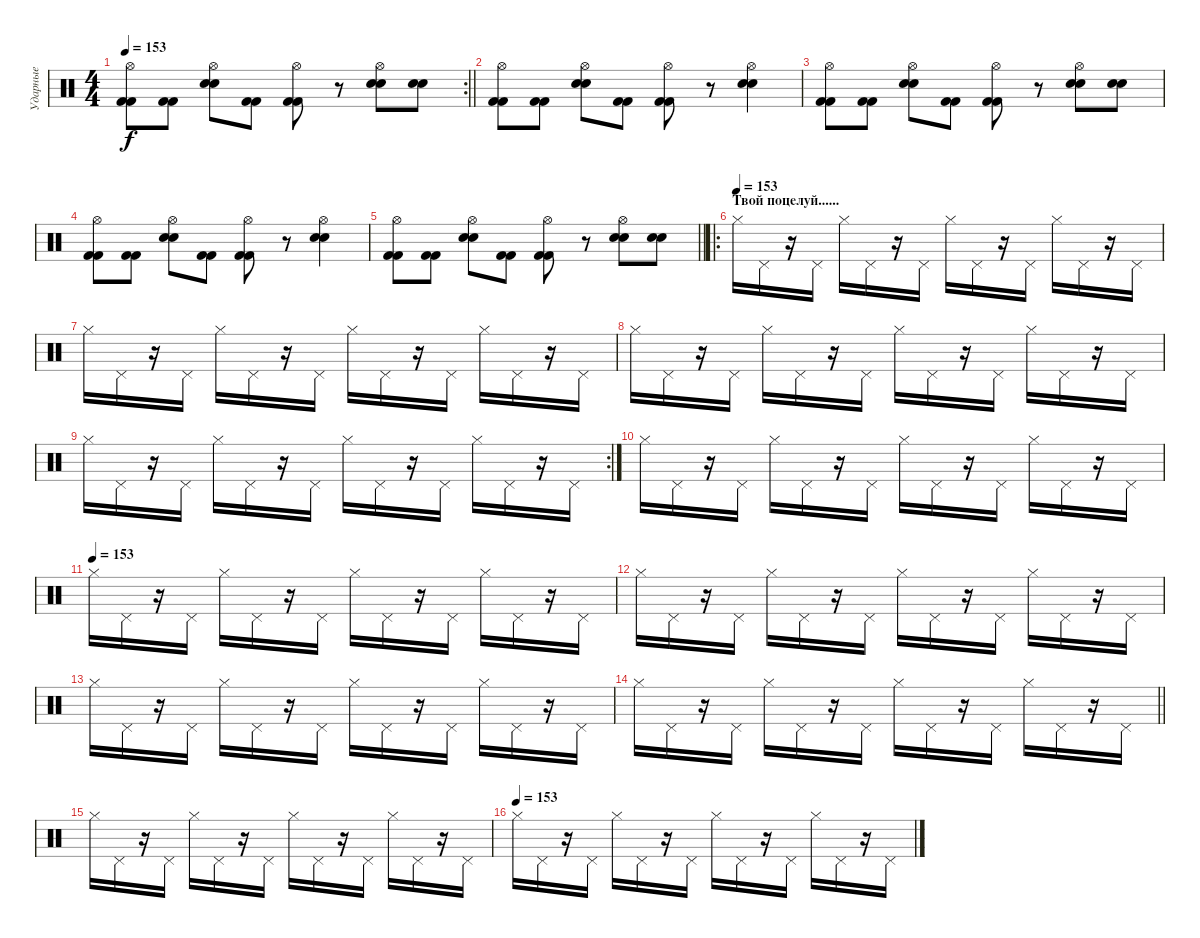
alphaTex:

\track ("Ударные" "Ударные") {instrument percussion}
\staff {score}
\articulation defaults
\rc 2
\ts (4 4)
\tempo 153
\clef neutral
\barLineRight lightlight
\ks c
("Kick (hit) 2" "Kick (hit) 2" "Hi-Hat (open)").8{dy f} ("Kick (hit) 2" "Kick (hit) 2").8 ("Electric Snare (hit)" "Electric Snare (hit)" "Hi-Hat (open)").8 ("Kick (hit) 2" "Kick (hit) 2").8 ("Kick (hit) 2" "Kick (hit) 2" "Hi-Hat (open)").8 r.8 ("Electric Snare (hit)" "Electric Snare (hit)" "Hi-Hat (open)").8 ("Electric Snare (hit)" "Electric Snare (hit)").8 |
("Kick (hit) 2" "Kick (hit) 2" "Hi-Hat (open)").8 ("Kick (hit) 2" "Kick (hit) 2").8 ("Electric Snare (hit)" "Electric Snare (hit)" "Hi-Hat (open)").8 ("Kick (hit) 2" "Kick (hit) 2").8 ("Kick (hit) 2" "Kick (hit) 2" "Hi-Hat (open)").8 r.8 ("Electric Snare (hit)" "Electric Snare (hit)" "Hi-Hat (open)").4 |
("Kick (hit) 2" "Kick (hit) 2" "Hi-Hat (open)").8 ("Kick (hit) 2" "Kick (hit) 2").8 ("Electric Snare (hit)" "Electric Snare (hit)" "Hi-Hat (open)").8 ("Kick (hit) 2" "Kick (hit) 2").8 ("Kick (hit) 2" "Kick (hit) 2" "Hi-Hat (open)").8 r.8 ("Electric Snare (hit)" "Electric Snare (hit)" "Hi-Hat (open)").8 ("Electric Snare (hit)" "Electric Snare (hit)").8 |
("Kick (hit) 2" "Kick (hit) 2" "Hi-Hat (open)").8 ("Kick (hit) 2" "Kick (hit) 2").8 ("Electric Snare (hit)" "Electric Snare (hit)" "Hi-Hat (open)").8 ("Kick (hit) 2" "Kick (hit) 2").8 ("Kick (hit) 2" "Kick (hit) 2" "Hi-Hat (open)").8 r.8 ("Electric Snare (hit)" "Electric Snare (hit)" "Hi-Hat (open)").4 |
\barLineRight lightlight
("Kick (hit) 2" "Kick (hit) 2" "Hi-Hat (open)").8 ("Kick (hit) 2" "Kick (hit) 2").8 ("Electric Snare (hit)" "Electric Snare (hit)" "Hi-Hat (open)").8 ("Kick (hit) 2" "Kick (hit) 2").8 ("Kick (hit) 2" "Kick (hit) 2" "Hi-Hat (open)").8 r.8 ("Electric Snare (hit)" "Electric Snare (hit)" "Hi-Hat (open)").8 ("Electric Snare (hit)" "Electric Snare (hit)").8 |
\ro
\section ("" "Твой поцелуй......")
\tempo (153)
"Hi-Hat (closed)".16{volume 13} "Pedal Hi-Hat (hit)".16 r.16 "Pedal Hi-Hat (hit)".16 "Hi-Hat (closed)".16 "Pedal Hi-Hat (hit)".16 r.16 "Pedal Hi-Hat (hit)".16 "Hi-Hat (closed)".16 "Pedal Hi-Hat (hit)".16 r.16 "Pedal Hi-Hat (hit)".16 "Hi-Hat (closed)".16 "Pedal Hi-Hat (hit)".16 r.16 "Pedal Hi-Hat (hit)".16 |
"Hi-Hat (closed)".16 "Pedal Hi-Hat (hit)".16 r.16 "Pedal Hi-Hat (hit)".16 "Hi-Hat (closed)".16 "Pedal Hi-Hat (hit)".16 r.16 "Pedal Hi-Hat (hit)".16 "Hi-Hat (closed)".16 "Pedal Hi-Hat (hit)".16 r.16 "Pedal Hi-Hat (hit)".16 "Hi-Hat (closed)".16 "Pedal Hi-Hat (hit)".16 r.16 "Pedal Hi-Hat (hit)".16 |
"Hi-Hat (closed)".16 "Pedal Hi-Hat (hit)".16 r.16 "Pedal Hi-Hat (hit)".16 "Hi-Hat (closed)".16 "Pedal Hi-Hat (hit)".16 r.16 "Pedal Hi-Hat (hit)".16 "Hi-Hat (closed)".16 "Pedal Hi-Hat (hit)".16 r.16 "Pedal Hi-Hat (hit)".16 "Hi-Hat (closed)".16 "Pedal Hi-Hat (hit)".16 r.16 "Pedal Hi-Hat (hit)".16 |
\rc 2 "Hi-Hat (closed)".16 "Pedal Hi-Hat (hit)".16
r.16 "Pedal Hi-Hat (hit)".16 "Hi-Hat (closed)".16 "Pedal Hi-Hat (hit)".16 r.16 "Pedal Hi-Hat (hit)".16 "Hi-Hat (closed)".16 "Pedal Hi-Hat (hit)".16 r.16 "Pedal Hi-Hat (hit)".16 "Hi-Hat (closed)".16 "Pedal Hi-Hat (hit)".16 r.16 "Pedal Hi-Hat (hit)".16 |
"Hi-Hat (closed)".16 "Pedal Hi-Hat (hit)".16 r.16 "Pedal Hi-Hat (hit)".16 "Hi-Hat (closed)".16 "Pedal Hi-Hat (hit)".16 r.16 "Pedal Hi-Hat (hit)".16 "Hi-Hat (closed)".16 "Pedal Hi-Hat (hit)".16 r.16 "Pedal Hi-Hat (hit)".16 "Hi-Hat (closed)".16 "Pedal Hi-Hat (hit)".16 r.16 "Pedal Hi-Hat (hit)".16 |
\tempo (153)
"Hi-Hat (closed)".16{volume 13} "Pedal Hi-Hat (hit)".16 r.16 "Pedal Hi-Hat (hit)".16 "Hi-Hat (closed)".16 "Pedal Hi-Hat (hit)".16 r.16 "Pedal Hi-Hat (hit)".16 "Hi-Hat (closed)".16 "Pedal Hi-Hat (hit)".16 r.16 "Pedal Hi-Hat (hit)".16 "Hi-Hat (closed)".16 "Pedal Hi-Hat (hit)".16 r.16 "Pedal Hi-Hat (hit)".16 |
"Hi-Hat (closed)".16 "Pedal Hi-Hat (hit)".16 r.16 "Pedal Hi-Hat (hit)".16 "Hi-Hat (closed)".16 "Pedal Hi-Hat (hit)".16 r.16 "Pedal Hi-Hat (hit)".16 "Hi-Hat (closed)".16 "Pedal Hi-Hat (hit)".16 r.16 "Pedal Hi-Hat (hit)".16 "Hi-Hat (closed)".16 "Pedal Hi-Hat (hit)".16 r.16 "Pedal Hi-Hat (hit)".16 |
"Hi-Hat (closed)".16 "Pedal Hi-Hat (hit)".16 r.16 "Pedal Hi-Hat (hit)".16 "Hi-Hat (closed)".16 "Pedal Hi-Hat (hit)".16 r.16 "Pedal Hi-Hat (hit)".16 "Hi-Hat (closed)".16 "Pedal Hi-Hat (hit)".16 r.16 "Pedal Hi-Hat (hit)".16 "Hi-Hat (closed)".16 "Pedal Hi-Hat (hit)".16 r.16 "Pedal Hi-Hat (hit)".16 |
\barLineRight lightlight "Hi-Hat (closed)".16 "Pedal Hi-Hat (hit)".16
r.16 "Pedal Hi-Hat (hit)".16 "Hi-Hat (closed)".16 "Pedal Hi-Hat (hit)".16 r.16 "Pedal Hi-Hat (hit)".16 "Hi-Hat (closed)".16 "Pedal Hi-Hat (hit)".16 r.16 "Pedal Hi-Hat (hit)".16 "Hi-Hat (closed)".16 "Pedal Hi-Hat (hit)".16 r.16 "Pedal Hi-Hat (hit)".16 |
"Hi-Hat (closed)".16 "Pedal Hi-Hat (hit)".16 r.16 "Pedal Hi-Hat (hit)".16 "Hi-Hat (closed)".16 "Pedal Hi-Hat (hit)".16 r.16 "Pedal Hi-Hat (hit)".16 "Hi-Hat (closed)".16 "Pedal Hi-Hat (hit)".16 r.16 "Pedal Hi-Hat (hit)".16 "Hi-Hat (closed)".16 "Pedal Hi-Hat (hit)".16 r.16 "Pedal Hi-Hat (hit)".16 |
\tempo (153)
"Hi-Hat (closed)".16{volume 13} "Pedal Hi-Hat (hit)".16 r.16 "Pedal Hi-Hat (hit)".16 "Hi-Hat (closed)".16 "Pedal Hi-Hat (hit)".16 r.16 "Pedal Hi-Hat (hit)".16 "Hi-Hat (closed)".16 "Pedal Hi-Hat (hit)".16 r.16 "Pedal Hi-Hat (hit)".16 "Hi-Hat (closed)".16 "Pedal Hi-Hat (hit)".16 r.16 "Pedal Hi-Hat (hit)".16
